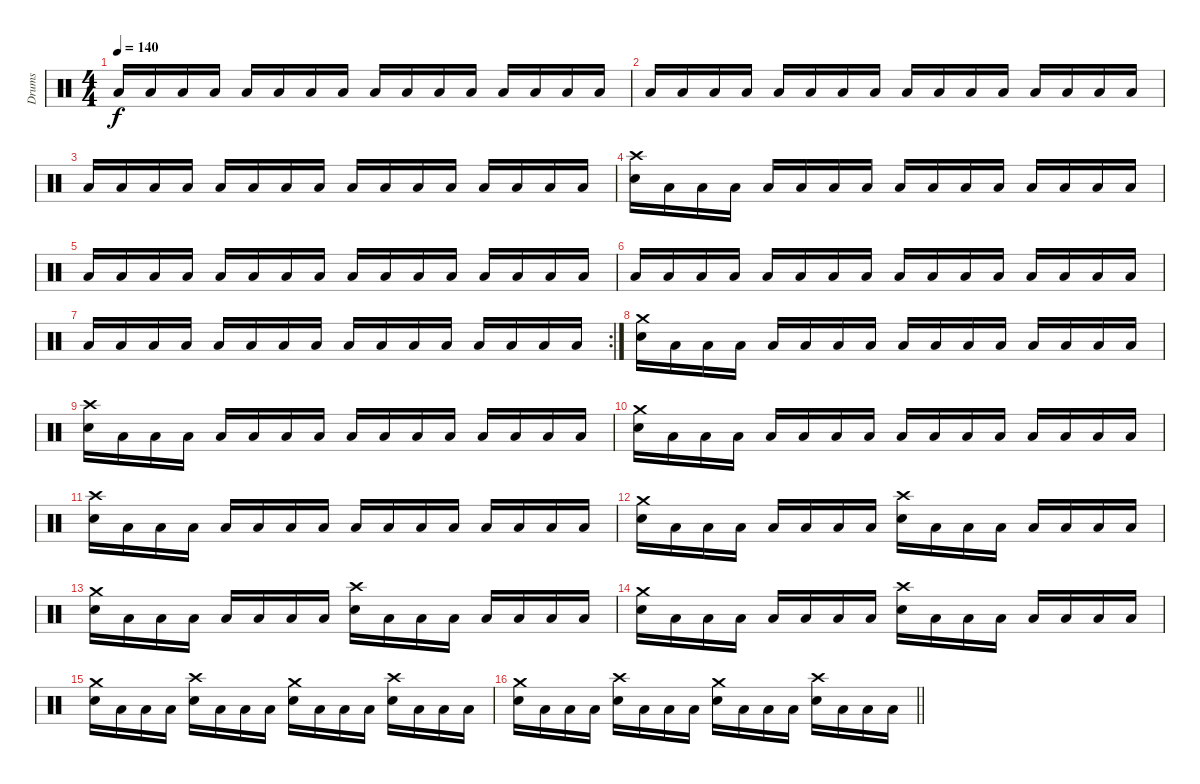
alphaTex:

\track ("Drums" "Drums") {instrument percussion}
\staff {score}
\articulation defaults
\ts (4 4)
\tempo 140
\clef neutral
\ks c "Low Tom (hit)".16{dy f} "Low Floor Tom (hit)".16 "Low Floor Tom (hit)".16 "Low Floor Tom (hit)".16 "Low Tom (hit)".16 "Low Floor Tom (hit)".16 "Low Floor Tom (hit)".16 "Low Floor Tom (hit)".16 "Low Tom (hit)".16 "Low Floor Tom (hit)".16 "Low Floor Tom (hit)".16 "Low Floor Tom (hit)".16 "Low Tom (hit)".16 "Low Floor Tom (hit)".16 "Low Floor Tom (hit)".16 "Low Floor Tom (hit)".16
|
"Low Tom (hit)".16 "Low Floor Tom (hit)".16 "Low Floor Tom (hit)".16 "Low Floor Tom (hit)".16 "Low Tom (hit)".16 "Low Floor Tom (hit)".16 "Low Floor Tom (hit)".16 "Low Floor Tom (hit)".16 "Low Tom (hit)".16 "Low Floor Tom (hit)".16 "Low Floor Tom (hit)".16 "Low Floor Tom (hit)".16 "Low Tom (hit)".16 "Low Floor Tom (hit)".16 "Low Floor Tom (hit)".16 "Low Floor Tom (hit)".16 |
"Low Tom (hit)".16 "Low Floor Tom (hit)".16 "Low Floor Tom (hit)".16 "Low Floor Tom (hit)".16 "Low Tom (hit)".16 "Low Floor Tom (hit)".16 "Low Floor Tom (hit)".16 "Low Floor Tom (hit)".16 "Low Tom (hit)".16 "Low Floor Tom (hit)".16 "Low Floor Tom (hit)".16 "Low Floor Tom (hit)".16 "Low Tom (hit)".16 "Low Floor Tom (hit)".16 "Low Floor Tom (hit)".16 "Low Floor Tom (hit)".16 |
("Crash high (hit)" "Snare (hit) 2").16 "Low Floor Tom (hit)".16 "Low Floor Tom (hit)".16 "Low Floor Tom (hit)".16 "Low Tom (hit)".16 "Low Floor Tom (hit)".16 "Low Floor Tom (hit)".16 "Low Floor Tom (hit)".16 "Low Tom (hit)".16 "Low Floor Tom (hit)".16 "Low Floor Tom (hit)".16 "Low Floor Tom (hit)".16 "Low Tom (hit)".16 "Low Floor Tom (hit)".16 "Low Floor Tom (hit)".16 "Low Floor Tom (hit)".16 |
"Low Tom (hit)".16 "Low Floor Tom (hit)".16 "Low Floor Tom (hit)".16 "Low Floor Tom (hit)".16 "Low Tom (hit)".16 "Low Floor Tom (hit)".16 "Low Floor Tom (hit)".16 "Low Floor Tom (hit)".16 "Low Tom (hit)".16 "Low Floor Tom (hit)".16 "Low Floor Tom (hit)".16 "Low Floor Tom (hit)".16 "Low Tom (hit)".16 "Low Floor Tom (hit)".16 "Low Floor Tom (hit)".16 "Low Floor Tom (hit)".16 |
"Low Tom (hit)".16 "Low Floor Tom (hit)".16 "Low Floor Tom (hit)".16 "Low Floor Tom (hit)".16 "Low Tom (hit)".16 "Low Floor Tom (hit)".16 "Low Floor Tom (hit)".16 "Low Floor Tom (hit)".16 "Low Tom (hit)".16 "Low Floor Tom (hit)".16 "Low Floor Tom (hit)".16 "Low Floor Tom (hit)".16 "Low Tom (hit)".16 "Low Floor Tom (hit)".16 "Low Floor Tom (hit)".16 "Low Floor Tom (hit)".16 |
\rc 2 "Low Tom (hit)".16 "Low Floor Tom (hit)".16 "Low Floor Tom (hit)".16 "Low Floor Tom (hit)".16 "Low Tom (hit)".16 "Low Floor Tom (hit)".16 "Low Floor Tom (hit)".16 "Low Floor Tom (hit)".16 "Low Tom (hit)".16 "Low Floor Tom (hit)".16 "Low Floor Tom (hit)".16 "Low Floor Tom (hit)".16 "Low Tom (hit)".16 "Low Floor Tom (hit)".16 "Low Floor Tom (hit)".16 "Low Floor Tom (hit)".16
|
("Crash medium (hit)" "Snare (hit) 2").16 "Low Floor Tom (hit)".16 "Low Floor Tom (hit)".16 "Low Floor Tom (hit)".16 "Low Tom (hit)".16 "Low Floor Tom (hit)".16 "Low Floor Tom (hit)".16 "Low Floor Tom (hit)".16 "Low Tom (hit)".16 "Low Floor Tom (hit)".16 "Low Floor Tom (hit)".16 "Low Floor Tom (hit)".16 "Low Tom (hit)".16 "Low Floor Tom (hit)".16 "Low Floor Tom (hit)".16 "Low Floor Tom (hit)".16 |
("Crash high (hit)" "Snare (hit) 2").16 "Low Floor Tom (hit)".16 "Low Floor Tom (hit)".16 "Low Floor Tom (hit)".16 "Low Tom (hit)".16 "Low Floor Tom (hit)".16 "Low Floor Tom (hit)".16 "Low Floor Tom (hit)".16 "Low Tom (hit)".16 "Low Floor Tom (hit)".16 "Low Floor Tom (hit)".16 "Low Floor Tom (hit)".16 "Low Tom (hit)".16 "Low Floor Tom (hit)".16 "Low Floor Tom (hit)".16 "Low Floor Tom (hit)".16 |
("Crash medium (hit)" "Snare (hit) 2").16 "Low Floor Tom (hit)".16 "Low Floor Tom (hit)".16 "Low Floor Tom (hit)".16 "Low Tom (hit)".16 "Low Floor Tom (hit)".16 "Low Floor Tom (hit)".16 "Low Floor Tom (hit)".16 "Low Tom (hit)".16 "Low Floor Tom (hit)".16 "Low Floor Tom (hit)".16 "Low Floor Tom (hit)".16 "Low Tom (hit)".16 "Low Floor Tom (hit)".16 "Low Floor Tom (hit)".16 "Low Floor Tom (hit)".16 |
("Crash high (hit)" "Snare (hit) 2").16 "Low Floor Tom (hit)".16 "Low Floor Tom (hit)".16 "Low Floor Tom (hit)".16 "Low Tom (hit)".16 "Low Floor Tom (hit)".16 "Low Floor Tom (hit)".16 "Low Floor Tom (hit)".16 "Low Tom (hit)".16 "Low Floor Tom (hit)".16 "Low Floor Tom (hit)".16 "Low Floor Tom (hit)".16 "Low Tom (hit)".16 "Low Floor Tom (hit)".16 "Low Floor Tom (hit)".16 "Low Floor Tom (hit)".16 |
("Crash medium (hit)" "Snare (hit) 2").16 "Low Floor Tom (hit)".16 "Low Floor Tom (hit)".16 "Low Floor Tom (hit)".16 "Low Tom (hit)".16 "Low Floor Tom (hit)".16 "Low Floor Tom (hit)".16 "Low Floor Tom (hit)".16 ("Crash high (hit)" "Snare (hit) 2").16 "Low Floor Tom (hit)".16 "Low Floor Tom (hit)".16 "Low Floor Tom (hit)".16 "Low Tom (hit)".16 "Low Floor Tom (hit)".16 "Low Floor Tom (hit)".16 "Low Floor Tom (hit)".16 |
("Crash medium (hit)" "Snare (hit) 2").16 "Low Floor Tom (hit)".16 "Low Floor Tom (hit)".16 "Low Floor Tom (hit)".16 "Low Tom (hit)".16 "Low Floor Tom (hit)".16 "Low Floor Tom (hit)".16 "Low Floor Tom (hit)".16 ("Crash high (hit)" "Snare (hit) 2").16 "Low Floor Tom (hit)".16 "Low Floor Tom (hit)".16 "Low Floor Tom (hit)".16 "Low Tom (hit)".16 "Low Floor Tom (hit)".16 "Low Floor Tom (hit)".16 "Low Floor Tom (hit)".16 |
("Crash medium (hit)" "Snare (hit) 2").16 "Low Floor Tom (hit)".16 "Low Floor Tom (hit)".16 "Low Floor Tom (hit)".16 "Low Tom (hit)".16 "Low Floor Tom (hit)".16 "Low Floor Tom (hit)".16 "Low Floor Tom (hit)".16 ("Crash high (hit)" "Snare (hit) 2").16 "Low Floor Tom (hit)".16 "Low Floor Tom (hit)".16 "Low Floor Tom (hit)".16 "Low Tom (hit)".16 "Low Floor Tom (hit)".16 "Low Floor Tom (hit)".16 "Low Floor Tom (hit)".16 |
("Crash medium (hit)" "Snare (hit) 2").16 "Low Floor Tom (hit)".16 "Low Floor Tom (hit)".16 "Low Floor Tom (hit)".16 ("Crash high (hit)" "Snare (hit) 2").16 "Low Floor Tom (hit)".16 "Low Floor Tom (hit)".16 "Low Floor Tom (hit)".16 ("Crash medium (hit)" "Snare (hit) 2").16 "Low Floor Tom (hit)".16 "Low Floor Tom (hit)".16 "Low Floor Tom (hit)".16 ("Crash high (hit)" "Snare (hit) 2").16 "Low Floor Tom (hit)".16 "Low Floor Tom (hit)".16 "Low Floor Tom (hit)".16 |
\barLineRight lightlight
("Crash medium (hit)" "Snare (hit) 2").16 "Low Floor Tom (hit)".16 "Low Floor Tom (hit)".16 "Low Floor Tom (hit)".16 ("Crash high (hit)" "Snare (hit) 2").16 "Low Floor Tom (hit)".16 "Low Floor Tom (hit)".16 "Low Floor Tom (hit)".16 ("Crash medium (hit)" "Snare (hit) 2").16 "Low Floor Tom (hit)".16 "Low Floor Tom (hit)".16 "Low Floor Tom (hit)".16 ("Crash high (hit)" "Snare (hit) 2").16 "Low Floor Tom (hit)".16 "Low Floor Tom (hit)".16 "Low Floor Tom (hit)".16
